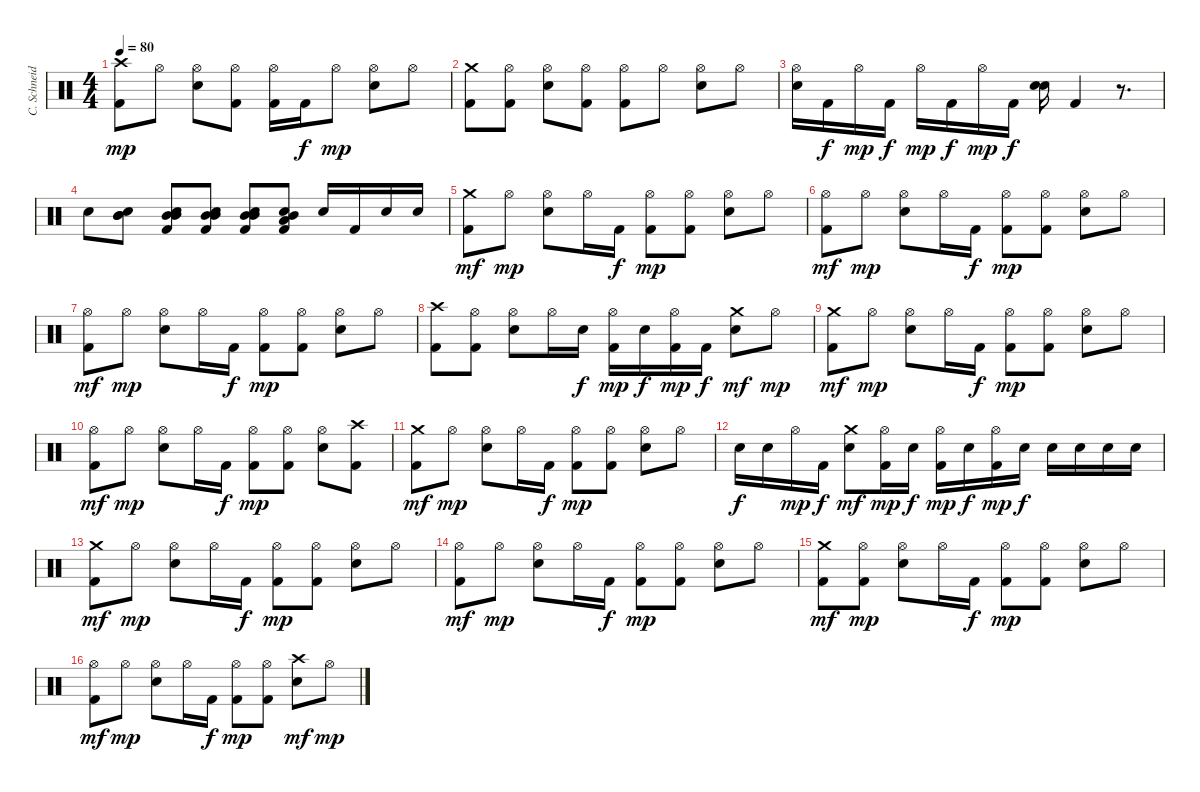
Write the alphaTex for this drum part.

\track ("C. Schneider" "C. Schneid") {instrument percussion}
\staff {score}
\articulation defaults
\ts (4 4)
\tempo 80
\clef neutral
\ks c
("Crash high (hit)" "Kick (hit) 2").8{dy mp} "Hi-Hat (open)".8 ("Hi-Hat (open)" "Snare (hit) 2").8 ("Hi-Hat (open)" "Kick (hit) 2").8 ("Hi-Hat (open)" "Kick (hit) 2").16 "Kick (hit) 2".16{dy f} "Hi-Hat (open)".8{dy mp} ("Hi-Hat (open)" "Snare (hit) 2").8 "Hi-Hat (open)".8 |
("Crash medium (hit)" "Kick (hit) 2").8 ("Hi-Hat (open)" "Kick (hit) 2").8 ("Hi-Hat (open)" "Snare (hit) 2").8 ("Hi-Hat (open)" "Kick (hit) 2").8 ("Hi-Hat (open)" "Kick (hit) 2").8 "Hi-Hat (open)".8 ("Hi-Hat (open)" "Snare (hit) 2").8 "Hi-Hat (open)".8 |
("Hi-Hat (open)" "Snare (hit) 2").16 "Kick (hit) 2".16{dy f} "Hi-Hat (open)".16{dy mp} "Kick (hit) 2".16{dy f} "Hi-Hat (open)".16{dy mp} "Kick (hit) 2".16{dy f} "Hi-Hat (open)".16{dy mp} "Kick (hit) 2".16{dy f} ("Snare (hit) 2" "Snare (hit) 2").16 "Kick (hit) 2".4 r.8{d} |
"Snare (hit) 2".8 ("Mid Tom (hit)" "Mid Tom (hit)" "Snare (hit) 2").8 ("Mid Tom (hit)" "Mid Tom (hit)" "Snare (hit) 2" "Kick (hit) 2").8 ("Mid Tom (hit)" "Mid Tom (hit)" "Snare (hit) 2" "Kick (hit) 2").8 ("Mid Tom (hit)" "Mid Tom (hit)" "Snare (hit) 2" "Kick (hit) 2").8 ("Mid Tom (hit)" "Low Tom (hit)" "Snare (hit) 2" "Kick (hit) 2").8 "Snare (hit) 2".16 "Kick (hit) 2".16 "Snare (hit) 2".16 "Snare (hit) 2".16 |
("Crash medium (hit)" "Kick (hit) 2").8{dy mf} "Hi-Hat (open)".8{dy mp} ("Hi-Hat (open)" "Snare (hit) 2").8 "Hi-Hat (open)".16 "Kick (hit) 2".16{dy f} ("Hi-Hat (open)" "Kick (hit) 2").8{dy mp} ("Hi-Hat (open)" "Kick (hit) 2").8 ("Hi-Hat (open)" "Snare (hit) 2").8 "Hi-Hat (open)".8 |
("Hi-Hat (open)" "Kick (hit) 2").8{dy mf} "Hi-Hat (open)".8{dy mp} ("Hi-Hat (open)" "Snare (hit) 2").8 "Hi-Hat (open)".16 "Kick (hit) 2".16{dy f} ("Hi-Hat (open)" "Kick (hit) 2").8{dy mp} ("Hi-Hat (open)" "Kick (hit) 2").8 ("Hi-Hat (open)" "Snare (hit) 2").8 "Hi-Hat (open)".8 |
("Hi-Hat (open)" "Kick (hit) 2").8{dy mf} "Hi-Hat (open)".8{dy mp} ("Hi-Hat (open)" "Snare (hit) 2").8 "Hi-Hat (open)".16 "Kick (hit) 2".16{dy f} ("Hi-Hat (open)" "Kick (hit) 2").8{dy mp} ("Hi-Hat (open)" "Kick (hit) 2").8 ("Hi-Hat (open)" "Snare (hit) 2").8 "Hi-Hat (open)".8 |
("Crash high (hit)" "Kick (hit) 2").8 ("Hi-Hat (open)" "Kick (hit) 2").8 ("Hi-Hat (open)" "Snare (hit) 2").8 "Hi-Hat (open)".16 "Snare (hit) 2".16{dy f} ("Hi-Hat (open)" "Kick (hit) 2").16{dy mp} "Snare (hit) 2".16{dy f} ("Hi-Hat (open)" "Kick (hit) 2").16{dy mp} "Kick (hit) 2".16{dy f} ("Crash medium (hit)" "Snare (hit) 2").8{dy mf} "Hi-Hat (open)".8{dy mp} |
("Crash medium (hit)" "Kick (hit) 2").8{dy mf} "Hi-Hat (open)".8{dy mp} ("Hi-Hat (open)" "Snare (hit) 2").8 "Hi-Hat (open)".16 "Kick (hit) 2".16{dy f} ("Hi-Hat (open)" "Kick (hit) 2").8{dy mp} ("Hi-Hat (open)" "Kick (hit) 2").8 ("Hi-Hat (open)" "Snare (hit) 2").8 "Hi-Hat (open)".8 |
("Hi-Hat (open)" "Kick (hit) 2").8{dy mf} "Hi-Hat (open)".8{dy mp} ("Hi-Hat (open)" "Snare (hit) 2").8 "Hi-Hat (open)".16 "Kick (hit) 2".16{dy f} ("Hi-Hat (open)" "Kick (hit) 2").8{dy mp} ("Hi-Hat (open)" "Kick (hit) 2").8 ("Hi-Hat (open)" "Snare (hit) 2").8 ("Crash high (hit)" "Kick (hit) 2").8 |
("Crash medium (hit)" "Kick (hit) 2").8{dy mf} "Hi-Hat (open)".8{dy mp} ("Hi-Hat (open)" "Snare (hit) 2").8 "Hi-Hat (open)".16 "Kick (hit) 2".16{dy f} ("Hi-Hat (open)" "Kick (hit) 2").8{dy mp} ("Hi-Hat (open)" "Kick (hit) 2").8 ("Hi-Hat (open)" "Snare (hit) 2").8 "Hi-Hat (open)".8 |
"Snare (hit) 2".16{dy f} "Snare (hit) 2".16 "Hi-Hat (open)".16{dy mp} "Kick (hit) 2".16{dy f} ("Crash medium (hit)" "Snare (hit) 2").8{dy mf} ("Hi-Hat (open)" "Kick (hit) 2").16{dy mp} "Snare (hit) 2".16{dy f} ("Hi-Hat (open)" "Kick (hit) 2").16{dy mp} "Snare (hit) 2".16{dy f} ("Hi-Hat (open)" "Kick (hit) 2").16{dy mp} "Snare (hit) 2".16{dy f} "Snare (hit) 2".16 "Snare (hit) 2".16 "Snare (hit) 2".16 "Snare (hit) 2".16 |
("Crash medium (hit)" "Kick (hit) 2").8{dy mf} "Hi-Hat (open)".8{dy mp} ("Hi-Hat (open)" "Snare (hit) 2").8 "Hi-Hat (open)".16 "Kick (hit) 2".16{dy f} ("Hi-Hat (open)" "Kick (hit) 2").8{dy mp} ("Hi-Hat (open)" "Kick (hit) 2").8 ("Hi-Hat (open)" "Snare (hit) 2").8 "Hi-Hat (open)".8 |
("Hi-Hat (open)" "Kick (hit) 2").8{dy mf} "Hi-Hat (open)".8{dy mp} ("Hi-Hat (open)" "Snare (hit) 2").8 "Hi-Hat (open)".16 "Kick (hit) 2".16{dy f} ("Hi-Hat (open)" "Kick (hit) 2").8{dy mp} ("Hi-Hat (open)" "Kick (hit) 2").8 ("Hi-Hat (open)" "Snare (hit) 2").8 "Hi-Hat (open)".8 |
("Crash medium (hit)" "Kick (hit) 2").8{dy mf} ("Hi-Hat (open)" "Kick (hit) 2").8{dy mp} ("Hi-Hat (open)" "Snare (hit) 2").8 "Hi-Hat (open)".16 "Kick (hit) 2".16{dy f} ("Hi-Hat (open)" "Kick (hit) 2").8{dy mp} ("Hi-Hat (open)" "Kick (hit) 2").8 ("Hi-Hat (open)" "Snare (hit) 2").8 "Hi-Hat (open)".8 |
("Hi-Hat (open)" "Kick (hit) 2").8{dy mf} "Hi-Hat (open)".8{dy mp} ("Hi-Hat (open)" "Snare (hit) 2").8 "Hi-Hat (open)".16 "Kick (hit) 2".16{dy f} ("Hi-Hat (open)" "Kick (hit) 2").8{dy mp} ("Hi-Hat (open)" "Kick (hit) 2").8 ("Crash high (hit)" "Snare (hit) 2").8{dy mf} "Hi-Hat (open)".8{dy mp}
